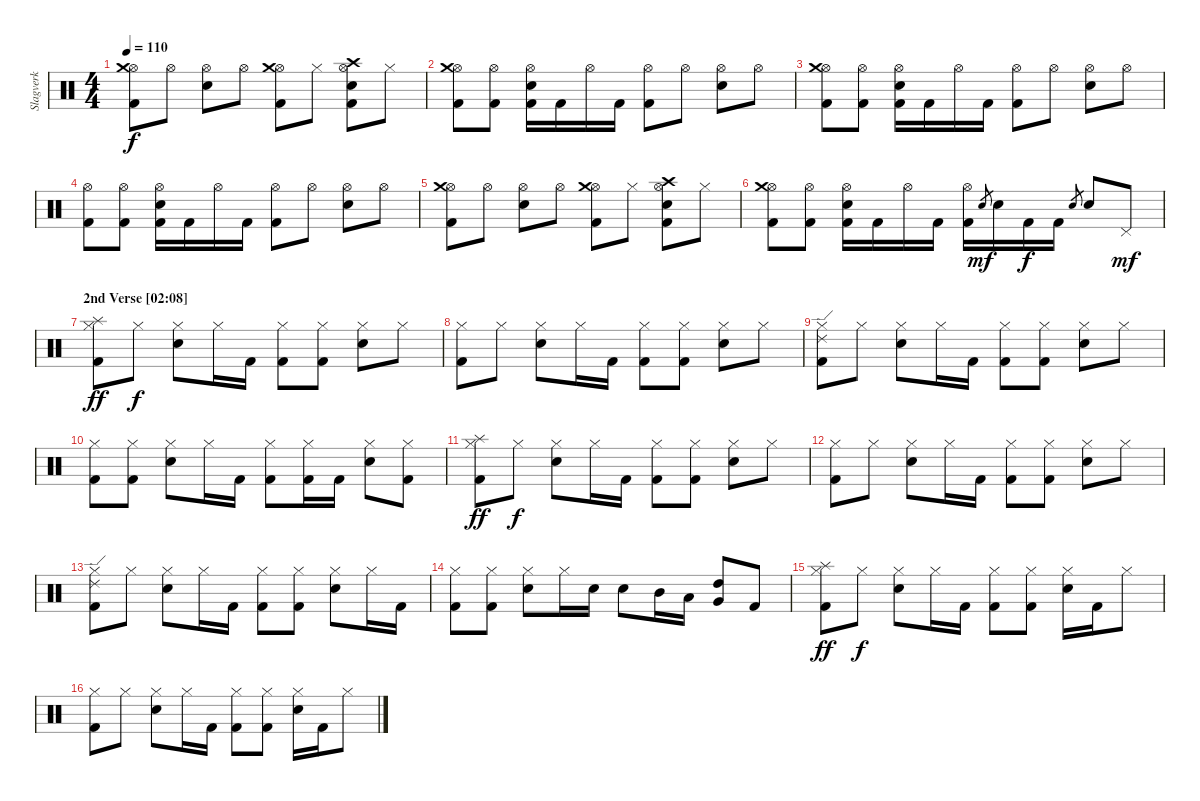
\track ("Slagverk" "Slagverk") {instrument percussion}
\staff {score}
\articulation defaults
\ts (4 4)
\tempo 110
\clef neutral
\ks c
("Hi-Hat (open)" "Crash medium (hit)" "Kick (hit) 2").8{dy f} "Hi-Hat (open)".8 ("Hi-Hat (open)" "Electric Snare (hit)").8 "Hi-Hat (open)".8 ("Hi-Hat (open)" "Crash medium (hit)" "Kick (hit) 2").8 "Hi-Hat (closed)".8 ("Hi-Hat (open)" "Crash high (hit)" "Electric Snare (hit)" "Kick (hit) 2").8 "Hi-Hat (closed)".8 |
("Hi-Hat (open)" "Crash medium (hit)" "Kick (hit) 2").8 ("Hi-Hat (open)" "Kick (hit) 2").8 ("Hi-Hat (open)" "Electric Snare (hit)" "Kick (hit) 2").16 "Kick (hit) 2".16 "Hi-Hat (open)".16 "Kick (hit) 2".16 ("Hi-Hat (open)" "Kick (hit) 2").8 "Hi-Hat (open)".8 ("Hi-Hat (open)" "Electric Snare (hit)").8 "Hi-Hat (open)".8 |
("Hi-Hat (open)" "Crash medium (hit)" "Kick (hit) 2").8 ("Hi-Hat (open)" "Kick (hit) 2").8 ("Hi-Hat (open)" "Electric Snare (hit)" "Kick (hit) 2").16 "Kick (hit) 2".16 "Hi-Hat (open)".16 "Kick (hit) 2".16 ("Hi-Hat (open)" "Kick (hit) 2").8 "Hi-Hat (open)".8 ("Hi-Hat (open)" "Electric Snare (hit)").8 "Hi-Hat (open)".8 |
("Hi-Hat (open)" "Kick (hit) 2").8 ("Hi-Hat (open)" "Kick (hit) 2").8 ("Hi-Hat (open)" "Electric Snare (hit)" "Kick (hit) 2").16 "Kick (hit) 2".16 "Hi-Hat (open)".16 "Kick (hit) 2".16 ("Hi-Hat (open)" "Kick (hit) 2").8 "Hi-Hat (open)".8 ("Hi-Hat (open)" "Electric Snare (hit)").8 "Hi-Hat (open)".8 |
("Hi-Hat (open)" "Crash medium (hit)" "Kick (hit) 2").8 "Hi-Hat (open)".8 ("Hi-Hat (open)" "Electric Snare (hit)").8 "Hi-Hat (open)".8 ("Hi-Hat (open)" "Crash medium (hit)" "Kick (hit) 2").8 "Hi-Hat (closed)".8 ("Hi-Hat (open)" "Crash high (hit)" "Electric Snare (hit)" "Kick (hit) 2").8 "Hi-Hat (closed)".8 |
("Hi-Hat (open)" "Crash medium (hit)" "Kick (hit) 2").8 ("Hi-Hat (open)" "Kick (hit) 2").8 ("Hi-Hat (open)" "Electric Snare (hit)" "Kick (hit) 2").16 "Kick (hit) 2".16 "Hi-Hat (open)".16 "Kick (hit) 2".16 ("Hi-Hat (open)" "Kick (hit) 2").16 "Snare (hit) 2".8{gr dy mf} "Electric Snare (hit)".16 "Kick (hit) 2".16{dy f} "Kick (hit) 2".16 "Snare (hit) 2".8{gr} "Electric Snare (hit)".8 "Pedal Hi-Hat (hit)".8{dy mf} |
\section ("" "2nd Verse [02:08]")
("Hi-Hat (closed)" "Splash (hit)" "Kick (hit) 2").8{dy ff} "Hi-Hat (closed)".8{dy f} ("Hi-Hat (closed)" "Electric Snare (hit)").8 "Hi-Hat (closed)".16 "Kick (hit) 2".16 ("Hi-Hat (closed)" "Kick (hit) 2").8 ("Hi-Hat (closed)" "Kick (hit) 2").8 ("Hi-Hat (closed)" "Electric Snare (hit)").8 "Hi-Hat (closed)".8 |
("Hi-Hat (closed)" "Kick (hit) 2").8 "Hi-Hat (closed)".8 ("Hi-Hat (closed)" "Electric Snare (hit)").8 "Hi-Hat (closed)".16 "Kick (hit) 2".16 ("Hi-Hat (closed)" "Kick (hit) 2").8 ("Hi-Hat (closed)" "Kick (hit) 2").8 ("Hi-Hat (closed)" "Electric Snare (hit)").8 "Hi-Hat (closed)".8 |
("Hi-Hat (closed)" "Ride (edge) 2" "Kick (hit) 2").8 "Hi-Hat (closed)".8 ("Hi-Hat (closed)" "Electric Snare (hit)").8 "Hi-Hat (closed)".16 "Kick (hit) 2".16 ("Hi-Hat (closed)" "Kick (hit) 2").8 ("Hi-Hat (closed)" "Kick (hit) 2").8 ("Hi-Hat (closed)" "Electric Snare (hit)").8 "Hi-Hat (closed)".8 |
("Hi-Hat (closed)" "Kick (hit) 2").8 ("Hi-Hat (closed)" "Kick (hit) 2").8 ("Hi-Hat (closed)" "Electric Snare (hit)").8 "Hi-Hat (closed)".16 "Kick (hit) 2".16 ("Hi-Hat (closed)" "Kick (hit) 2").8 ("Hi-Hat (closed)" "Kick (hit) 2").16 "Kick (hit) 2".16 ("Hi-Hat (closed)" "Electric Snare (hit)").8 ("Hi-Hat (closed)" "Kick (hit) 2").8 |
("Hi-Hat (closed)" "Splash (hit)" "Kick (hit) 2").8{dy ff} "Hi-Hat (closed)".8{dy f} ("Hi-Hat (closed)" "Electric Snare (hit)").8 "Hi-Hat (closed)".16 "Kick (hit) 2".16 ("Hi-Hat (closed)" "Kick (hit) 2").8 ("Hi-Hat (closed)" "Kick (hit) 2").8 ("Hi-Hat (closed)" "Electric Snare (hit)").8 "Hi-Hat (closed)".8 |
("Hi-Hat (closed)" "Kick (hit) 2").8 "Hi-Hat (closed)".8 ("Hi-Hat (closed)" "Electric Snare (hit)").8 "Hi-Hat (closed)".16 "Kick (hit) 2".16 ("Hi-Hat (closed)" "Kick (hit) 2").8 ("Hi-Hat (closed)" "Kick (hit) 2").8 ("Hi-Hat (closed)" "Electric Snare (hit)").8 "Hi-Hat (closed)".8 |
("Hi-Hat (closed)" "Ride (edge) 2" "Kick (hit) 2").8 "Hi-Hat (closed)".8 ("Hi-Hat (closed)" "Electric Snare (hit)").8 "Hi-Hat (closed)".16 "Kick (hit) 2".16 ("Hi-Hat (closed)" "Kick (hit) 2").8 ("Hi-Hat (closed)" "Kick (hit) 2").8 ("Hi-Hat (closed)" "Electric Snare (hit)").8 "Hi-Hat (closed)".16 "Kick (hit) 2".16 |
("Hi-Hat (closed)" "Kick (hit) 2").8 ("Hi-Hat (closed)" "Kick (hit) 2").8 ("Hi-Hat (closed)" "Electric Snare (hit)").8 "Hi-Hat (closed)".16 "Electric Snare (hit)".16 "Electric Snare (hit)".8 "Mid Tom (hit)".16 "Low Tom (hit)".16 ("High Tom (hit)" "Very Low Tom (hit)").8 "Kick (hit) 2".8 |
\section ("" "")
("Hi-Hat (closed)" "Splash (hit)" "Kick (hit) 2").8{dy ff} "Hi-Hat (closed)".8{dy f} ("Hi-Hat (closed)" "Electric Snare (hit)").8 "Hi-Hat (closed)".16 "Kick (hit) 2".16 ("Hi-Hat (closed)" "Kick (hit) 2").8 ("Hi-Hat (closed)" "Kick (hit) 2").8 ("Hi-Hat (closed)" "Electric Snare (hit)").16 "Kick (hit) 2".16 "Hi-Hat (closed)".8 |
("Hi-Hat (closed)" "Kick (hit) 2").8 "Hi-Hat (closed)".8 ("Hi-Hat (closed)" "Electric Snare (hit)").8 "Hi-Hat (closed)".16 "Kick (hit) 2".16 ("Hi-Hat (closed)" "Kick (hit) 2").8 ("Hi-Hat (closed)" "Kick (hit) 2").8 ("Hi-Hat (closed)" "Electric Snare (hit)").16 "Kick (hit) 2".16 "Hi-Hat (closed)".8
